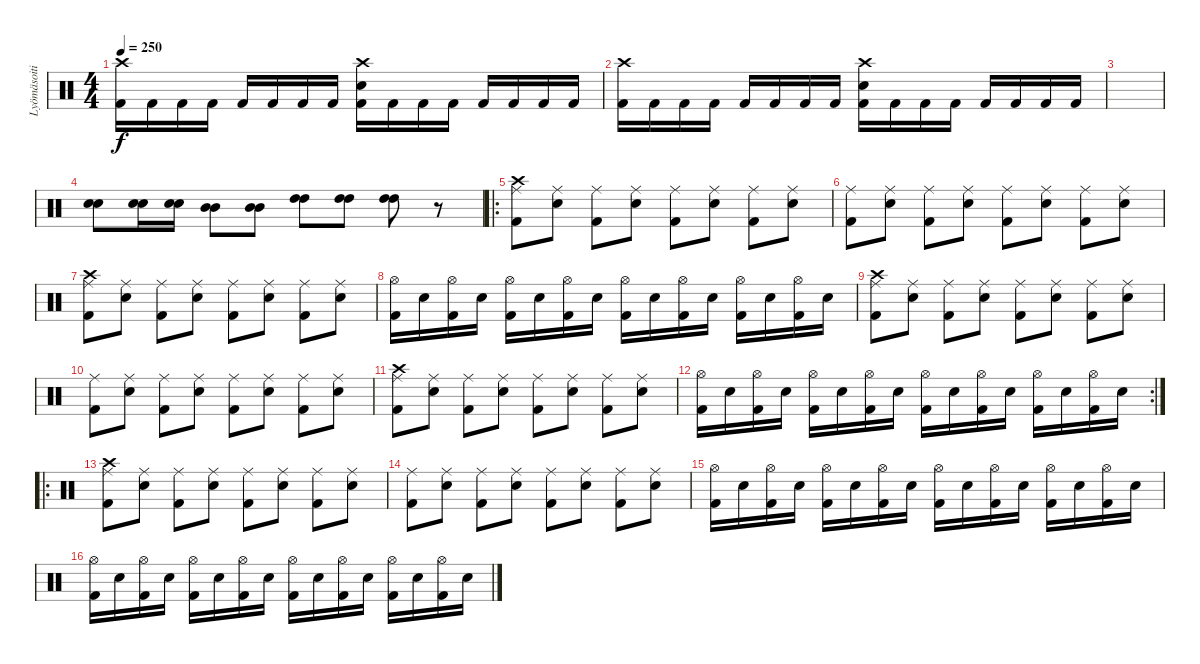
\track ("Lyömäsoitin" "Lyömäsoiti") {instrument percussion}
\staff {score}
\articulation defaults
\ts (4 4)
\tempo 250
\clef neutral
\ks c
("Crash high (hit)" "Kick (hit) 2").16{dy f} "Kick (hit) 2".16 "Kick (hit) 2".16 "Kick (hit) 2".16 "Kick (hit) 2".16 "Kick (hit) 2".16 "Kick (hit) 2".16 "Kick (hit) 2".16 ("Electric Snare (hit)" "Crash high (hit)" "Kick (hit) 2").16 "Kick (hit) 2".16 "Kick (hit) 2".16 "Kick (hit) 2".16 "Kick (hit) 2".16 "Kick (hit) 2".16 "Kick (hit) 2".16 "Kick (hit) 2".16 |
("Crash high (hit)" "Kick (hit) 2").16 "Kick (hit) 2".16 "Kick (hit) 2".16 "Kick (hit) 2".16 "Kick (hit) 2".16 "Kick (hit) 2".16 "Kick (hit) 2".16 "Kick (hit) 2".16 ("Electric Snare (hit)" "Crash high (hit)" "Kick (hit) 2").16 "Kick (hit) 2".16 "Kick (hit) 2".16 "Kick (hit) 2".16 "Kick (hit) 2".16 "Kick (hit) 2".16 "Kick (hit) 2".16 "Kick (hit) 2".16 |
|
("Electric Snare (hit)" "Electric Snare (hit)").8 ("Electric Snare (hit)" "Electric Snare (hit)").16 ("Electric Snare (hit)" "Electric Snare (hit)").16 ("Mid Tom (hit)" "Mid Tom (hit)").8 ("Mid Tom (hit)" "Mid Tom (hit)").8 ("High Tom (hit)" "High Tom (hit)").8 ("High Tom (hit)" "High Tom (hit)").8 ("High Tom (hit)" "High Tom (hit)").8 r.8 |
\ro
("Crash high (hit)" "Ride (middle)" "Kick (hit) 2").8 ("Ride (middle)" "Electric Snare (hit)").8 ("Ride (middle)" "Kick (hit) 2").8 ("Ride (middle)" "Electric Snare (hit)").8 ("Ride (middle)" "Kick (hit) 2").8 ("Ride (middle)" "Electric Snare (hit)").8 ("Ride (middle)" "Kick (hit) 2").8 ("Ride (middle)" "Electric Snare (hit)").8 |
("Ride (middle)" "Kick (hit) 2").8 ("Ride (middle)" "Electric Snare (hit)").8 ("Ride (middle)" "Kick (hit) 2").8 ("Ride (middle)" "Electric Snare (hit)").8 ("Ride (middle)" "Kick (hit) 2").8 ("Ride (middle)" "Electric Snare (hit)").8 ("Ride (middle)" "Kick (hit) 2").8 ("Ride (middle)" "Electric Snare (hit)").8 |
("Crash high (hit)" "Ride (middle)" "Kick (hit) 2").8 ("Ride (middle)" "Electric Snare (hit)").8 ("Ride (middle)" "Kick (hit) 2").8 ("Ride (middle)" "Electric Snare (hit)").8 ("Ride (middle)" "Kick (hit) 2").8 ("Ride (middle)" "Electric Snare (hit)").8 ("Ride (middle)" "Kick (hit) 2").8 ("Ride (middle)" "Electric Snare (hit)").8 |
("Hi-Hat (open)" "Kick (hit) 2").16 "Electric Snare (hit)".16 ("Hi-Hat (open)" "Kick (hit) 2").16 "Electric Snare (hit)".16 ("Hi-Hat (open)" "Kick (hit) 2").16 "Electric Snare (hit)".16 ("Hi-Hat (open)" "Kick (hit) 2").16 "Electric Snare (hit)".16 ("Hi-Hat (open)" "Kick (hit) 2").16 "Electric Snare (hit)".16 ("Hi-Hat (open)" "Kick (hit) 2").16 "Electric Snare (hit)".16 ("Hi-Hat (open)" "Kick (hit) 2").16 "Electric Snare (hit)".16 ("Hi-Hat (open)" "Kick (hit) 2").16 "Electric Snare (hit)".16 |
("Crash high (hit)" "Ride (middle)" "Kick (hit) 2").8 ("Ride (middle)" "Electric Snare (hit)").8 ("Ride (middle)" "Kick (hit) 2").8 ("Ride (middle)" "Electric Snare (hit)").8 ("Ride (middle)" "Kick (hit) 2").8 ("Ride (middle)" "Electric Snare (hit)").8 ("Ride (middle)" "Kick (hit) 2").8 ("Ride (middle)" "Electric Snare (hit)").8 |
("Ride (middle)" "Kick (hit) 2").8 ("Ride (middle)" "Electric Snare (hit)").8 ("Ride (middle)" "Kick (hit) 2").8 ("Ride (middle)" "Electric Snare (hit)").8 ("Ride (middle)" "Kick (hit) 2").8 ("Ride (middle)" "Electric Snare (hit)").8 ("Ride (middle)" "Kick (hit) 2").8 ("Ride (middle)" "Electric Snare (hit)").8 |
("Crash high (hit)" "Ride (middle)" "Kick (hit) 2").8 ("Ride (middle)" "Electric Snare (hit)").8 ("Ride (middle)" "Kick (hit) 2").8 ("Ride (middle)" "Electric Snare (hit)").8 ("Ride (middle)" "Kick (hit) 2").8 ("Ride (middle)" "Electric Snare (hit)").8 ("Ride (middle)" "Kick (hit) 2").8 ("Ride (middle)" "Electric Snare (hit)").8 |
\rc 2
("Hi-Hat (open)" "Kick (hit) 2").16 "Electric Snare (hit)".16 ("Hi-Hat (open)" "Kick (hit) 2").16 "Electric Snare (hit)".16 ("Hi-Hat (open)" "Kick (hit) 2").16 "Electric Snare (hit)".16 ("Hi-Hat (open)" "Kick (hit) 2").16 "Electric Snare (hit)".16 ("Hi-Hat (open)" "Kick (hit) 2").16 "Electric Snare (hit)".16 ("Hi-Hat (open)" "Kick (hit) 2").16 "Electric Snare (hit)".16 ("Hi-Hat (open)" "Kick (hit) 2").16 "Electric Snare (hit)".16 ("Hi-Hat (open)" "Kick (hit) 2").16 "Electric Snare (hit)".16 |
\ro
("Crash high (hit)" "Ride (middle)" "Kick (hit) 2").8 ("Ride (middle)" "Electric Snare (hit)").8 ("Ride (middle)" "Kick (hit) 2").8 ("Ride (middle)" "Electric Snare (hit)").8 ("Ride (middle)" "Kick (hit) 2").8 ("Ride (middle)" "Electric Snare (hit)").8 ("Ride (middle)" "Kick (hit) 2").8 ("Ride (middle)" "Electric Snare (hit)").8 |
("Ride (middle)" "Kick (hit) 2").8 ("Ride (middle)" "Electric Snare (hit)").8 ("Ride (middle)" "Kick (hit) 2").8 ("Ride (middle)" "Electric Snare (hit)").8 ("Ride (middle)" "Kick (hit) 2").8 ("Ride (middle)" "Electric Snare (hit)").8 ("Ride (middle)" "Kick (hit) 2").8 ("Ride (middle)" "Electric Snare (hit)").8 |
("Hi-Hat (open)" "Kick (hit) 2").16 "Electric Snare (hit)".16 ("Hi-Hat (open)" "Kick (hit) 2").16 "Electric Snare (hit)".16 ("Hi-Hat (open)" "Kick (hit) 2").16 "Electric Snare (hit)".16 ("Hi-Hat (open)" "Kick (hit) 2").16 "Electric Snare (hit)".16 ("Hi-Hat (open)" "Kick (hit) 2").16 "Electric Snare (hit)".16 ("Hi-Hat (open)" "Kick (hit) 2").16 "Electric Snare (hit)".16 ("Hi-Hat (open)" "Kick (hit) 2").16 "Electric Snare (hit)".16 ("Hi-Hat (open)" "Kick (hit) 2").16 "Electric Snare (hit)".16 |
("Hi-Hat (open)" "Kick (hit) 2").16 "Electric Snare (hit)".16 ("Hi-Hat (open)" "Kick (hit) 2").16 "Electric Snare (hit)".16 ("Hi-Hat (open)" "Kick (hit) 2").16 "Electric Snare (hit)".16 ("Hi-Hat (open)" "Kick (hit) 2").16 "Electric Snare (hit)".16 ("Hi-Hat (open)" "Kick (hit) 2").16 "Electric Snare (hit)".16 ("Hi-Hat (open)" "Kick (hit) 2").16 "Electric Snare (hit)".16 ("Hi-Hat (open)" "Kick (hit) 2").16 "Electric Snare (hit)".16 ("Hi-Hat (open)" "Kick (hit) 2").16 "Electric Snare (hit)".16
